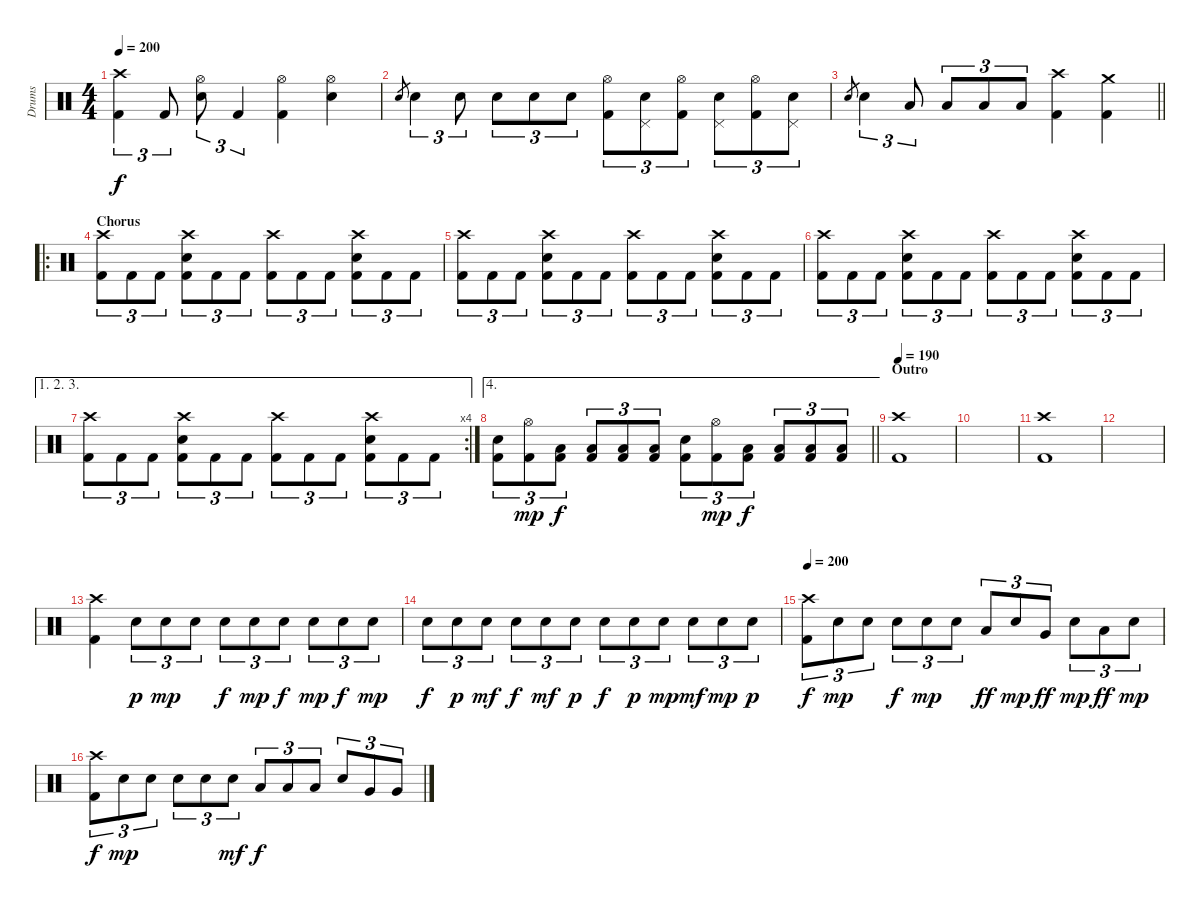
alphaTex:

\track ("Drums" "Drums") {instrument percussion}
\staff {score}
\articulation defaults
\ts (4 4)
\tempo 200
\clef neutral
\ks c
("Crash high (hit)" "Kick (hit) 2").4{tu (3 2) dy f} "Kick (hit) 2".8{tu (3 2)} ("Hi-Hat (open)" "Electric Snare (hit)").8{tu (3 2)} "Kick (hit) 2".4{tu (3 2)} ("Hi-Hat (open)" "Kick (hit) 2").4 ("Hi-Hat (open)" "Electric Snare (hit)").4 |
"Electric Snare (hit)".8{gr} "Electric Snare (hit)".4{tu (3 2)} "Electric Snare (hit)".8{tu (3 2)} "Electric Snare (hit)".8{tu (3 2)} "Electric Snare (hit)".8{tu (3 2)} "Electric Snare (hit)".8{tu (3 2)} ("Hi-Hat (open)" "Kick (hit) 2").8{tu (3 2)} ("Pedal Hi-Hat (hit)" "Electric Snare (hit)").8{tu (3 2)} ("Hi-Hat (open)" "Kick (hit) 2").8{tu (3 2)} ("Pedal Hi-Hat (hit)" "Electric Snare (hit)").8{tu (3 2)} ("Hi-Hat (open)" "Kick (hit) 2").8{tu (3 2)} ("Pedal Hi-Hat (hit)" "Electric Snare (hit)").8{tu (3 2)} |
\barLineRight lightlight "Electric Snare (hit)".8{gr} "Electric Snare (hit)".4{tu (3 2)} "Low Tom (hit)".8{tu (3 2)} "Low Tom (hit)".8{tu (3 2)} "Low Tom (hit)".8{tu (3 2)} "Low Tom (hit)".8{tu (3 2)}
("Crash high (hit)" "Kick (hit) 2").4 ("Crash medium (hit)" "Kick (hit) 2").4 |
\ro
\section ("" "Chorus")
("Crash high (hit)" "Kick (hit) 2").8{tu (3 2)} "Kick (hit) 2".8{tu (3 2)} "Kick (hit) 2".8{tu (3 2)} ("Crash high (hit)" "Electric Snare (hit)" "Kick (hit) 2").8{tu (3 2)} "Kick (hit) 2".8{tu (3 2)} "Kick (hit) 2".8{tu (3 2)} ("Crash high (hit)" "Kick (hit) 2").8{tu (3 2)} "Kick (hit) 2".8{tu (3 2)} "Kick (hit) 2".8{tu (3 2)} ("Crash high (hit)" "Electric Snare (hit)" "Kick (hit) 2").8{tu (3 2)} "Kick (hit) 2".8{tu (3 2)} "Kick (hit) 2".8{tu (3 2)} |
("Crash high (hit)" "Kick (hit) 2").8{tu (3 2)} "Kick (hit) 2".8{tu (3 2)} "Kick (hit) 2".8{tu (3 2)} ("Crash high (hit)" "Electric Snare (hit)" "Kick (hit) 2").8{tu (3 2)} "Kick (hit) 2".8{tu (3 2)} "Kick (hit) 2".8{tu (3 2)} ("Crash high (hit)" "Kick (hit) 2").8{tu (3 2)} "Kick (hit) 2".8{tu (3 2)} "Kick (hit) 2".8{tu (3 2)} ("Crash high (hit)" "Electric Snare (hit)" "Kick (hit) 2").8{tu (3 2)} "Kick (hit) 2".8{tu (3 2)} "Kick (hit) 2".8{tu (3 2)} |
("Crash high (hit)" "Kick (hit) 2").8{tu (3 2)} "Kick (hit) 2".8{tu (3 2)} "Kick (hit) 2".8{tu (3 2)} ("Crash high (hit)" "Electric Snare (hit)" "Kick (hit) 2").8{tu (3 2)} "Kick (hit) 2".8{tu (3 2)} "Kick (hit) 2".8{tu (3 2)} ("Crash high (hit)" "Kick (hit) 2").8{tu (3 2)} "Kick (hit) 2".8{tu (3 2)} "Kick (hit) 2".8{tu (3 2)} ("Crash high (hit)" "Electric Snare (hit)" "Kick (hit) 2").8{tu (3 2)} "Kick (hit) 2".8{tu (3 2)} "Kick (hit) 2".8{tu (3 2)} |
\ae (1 2 3)
\rc 4
("Crash high (hit)" "Kick (hit) 2").8{tu (3 2)} "Kick (hit) 2".8{tu (3 2)} "Kick (hit) 2".8{tu (3 2)} ("Crash high (hit)" "Electric Snare (hit)" "Kick (hit) 2").8{tu (3 2)} "Kick (hit) 2".8{tu (3 2)} "Kick (hit) 2".8{tu (3 2)} ("Crash high (hit)" "Kick (hit) 2").8{tu (3 2)} "Kick (hit) 2".8{tu (3 2)} "Kick (hit) 2".8{tu (3 2)} ("Crash high (hit)" "Electric Snare (hit)" "Kick (hit) 2").8{tu (3 2)} "Kick (hit) 2".8{tu (3 2)} "Kick (hit) 2".8{tu (3 2)} |
\ae 4
\barLineRight lightlight
("Electric Snare (hit)" "Kick (hit) 2").8{tu (3 2)} ("Hi-Hat (open)" "Kick (hit) 2").8{tu (3 2) dy mp} ("Low Tom (hit)" "Kick (hit) 2").8{tu (3 2) dy f} ("Low Tom (hit)" "Kick (hit) 2").8{tu (3 2)} ("Low Tom (hit)" "Kick (hit) 2").8{tu (3 2)} ("Low Tom (hit)" "Kick (hit) 2").8{tu (3 2)} ("Electric Snare (hit)" "Kick (hit) 2").8{tu (3 2)} ("Hi-Hat (open)" "Kick (hit) 2").8{tu (3 2) dy mp} ("Low Tom (hit)" "Kick (hit) 2").8{tu (3 2) dy f} ("Low Tom (hit)" "Kick (hit) 2").8{tu (3 2)} ("Low Tom (hit)" "Kick (hit) 2").8{tu (3 2)} ("Low Tom (hit)" "Kick (hit) 2").8{tu (3 2)} |
\section ("" "Outro")
\tempo 190
("Crash high (hit)" "Kick (hit) 2").1 |
|
("Crash high (hit)" "Kick (hit) 2").1 |
|
("Crash high (hit)" "Kick (hit) 2").4 "Electric Snare (hit)".8{tu (3 2) dy p} "Electric Snare (hit)".8{tu (3 2) dy mp} "Electric Snare (hit)".8{tu (3 2)} "Electric Snare (hit)".8{tu (3 2) dy f} "Electric Snare (hit)".8{tu (3 2) dy mp} "Electric Snare (hit)".8{tu (3 2) dy f} "Electric Snare (hit)".8{tu (3 2) dy mp} "Electric Snare (hit)".8{tu (3 2) dy f} "Electric Snare (hit)".8{tu (3 2) dy mp} |
"Electric Snare (hit)".8{tu (3 2) dy f} "Electric Snare (hit)".8{tu (3 2) dy p} "Electric Snare (hit)".8{tu (3 2) dy mf} "Electric Snare (hit)".8{tu (3 2) dy f} "Electric Snare (hit)".8{tu (3 2) dy mf} "Electric Snare (hit)".8{tu (3 2) dy p} "Electric Snare (hit)".8{tu (3 2) dy f} "Electric Snare (hit)".8{tu (3 2) dy p} "Electric Snare (hit)".8{tu (3 2) dy mp} "Electric Snare (hit)".8{tu (3 2) dy mf} "Electric Snare (hit)".8{tu (3 2) dy mp} "Electric Snare (hit)".8{tu (3 2) dy p} |
\tempo 200
("Crash high (hit)" "Kick (hit) 2").8{tu (3 2) dy f} "Electric Snare (hit)".8{tu (3 2) dy mp} "Electric Snare (hit)".8{tu (3 2)} "Electric Snare (hit)".8{tu (3 2) dy f} "Electric Snare (hit)".8{tu (3 2) dy mp} "Electric Snare (hit)".8{tu (3 2)} "Low Tom (hit)".8{tu (3 2) dy ff} "Electric Snare (hit)".8{tu (3 2) dy mp} "Very Low Tom (hit)".8{tu (3 2) dy ff} "Electric Snare (hit)".8{tu (3 2) dy mp} "Low Floor Tom (hit)".8{tu (3 2) dy ff} "Electric Snare (hit)".8{tu (3 2) dy mp} |
("Crash high (hit)" "Kick (hit) 2").8{tu (3 2) dy f} "Electric Snare (hit)".8{tu (3 2) dy mp} "Electric Snare (hit)".8{tu (3 2)} "Electric Snare (hit)".8{tu (3 2)} "Electric Snare (hit)".8{tu (3 2)} "Electric Snare (hit)".8{tu (3 2) dy mf} "Low Tom (hit)".8{tu (3 2) dy f} "Low Tom (hit)".8{tu (3 2)} "Low Tom (hit)".8{tu (3 2)} "Electric Snare (hit)".8{tu (3 2)} "Very Low Tom (hit)".8{tu (3 2)} "Very Low Tom (hit)".8{tu (3 2)}
